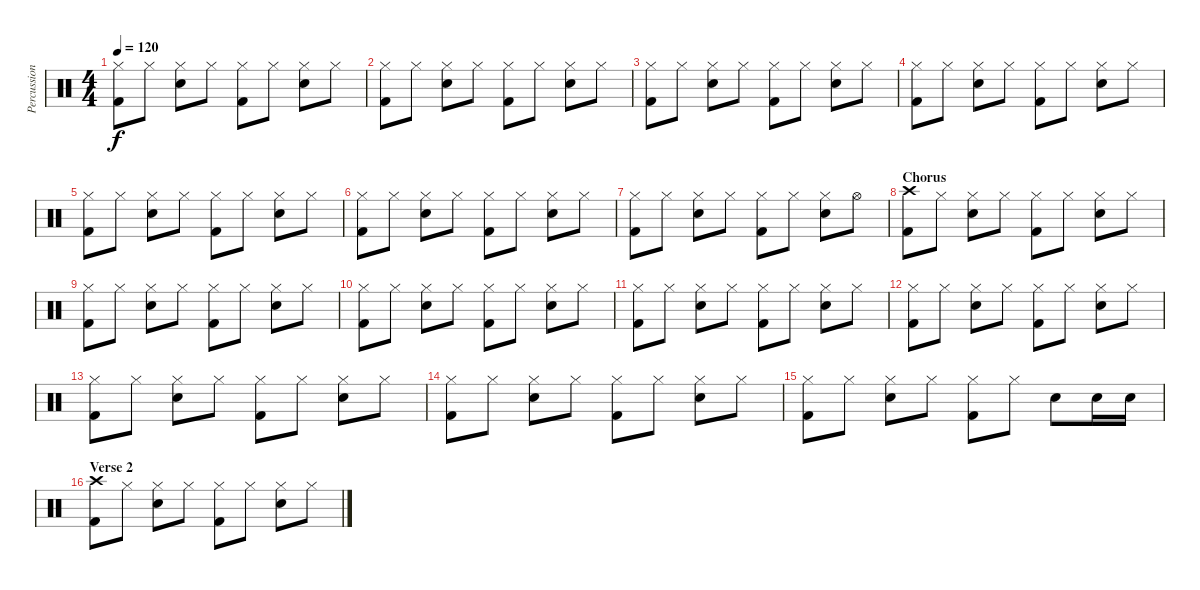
\track ("Percussion" "Percussion") {instrument percussion}
\staff {score}
\articulation defaults
\ts (4 4)
\tempo 120
\clef neutral
\ks c
("Hi-Hat (closed)" "Kick (hit) 2").8{dy f} "Hi-Hat (closed)".8 ("Hi-Hat (closed)" "Electric Snare (hit)").8 "Hi-Hat (closed)".8 ("Hi-Hat (closed)" "Kick (hit) 2").8 "Hi-Hat (closed)".8 ("Hi-Hat (closed)" "Electric Snare (hit)").8 "Hi-Hat (closed)".8 |
("Hi-Hat (closed)" "Kick (hit) 2").8 "Hi-Hat (closed)".8 ("Hi-Hat (closed)" "Electric Snare (hit)").8 "Hi-Hat (closed)".8 ("Hi-Hat (closed)" "Kick (hit) 2").8 "Hi-Hat (closed)".8 ("Hi-Hat (closed)" "Electric Snare (hit)").8 "Hi-Hat (closed)".8 |
("Hi-Hat (closed)" "Kick (hit) 2").8 "Hi-Hat (closed)".8 ("Hi-Hat (closed)" "Electric Snare (hit)").8 "Hi-Hat (closed)".8 ("Hi-Hat (closed)" "Kick (hit) 2").8 "Hi-Hat (closed)".8 ("Hi-Hat (closed)" "Electric Snare (hit)").8 "Hi-Hat (closed)".8 |
("Hi-Hat (closed)" "Kick (hit) 2").8 "Hi-Hat (closed)".8 ("Hi-Hat (closed)" "Electric Snare (hit)").8 "Hi-Hat (closed)".8 ("Hi-Hat (closed)" "Kick (hit) 2").8 "Hi-Hat (closed)".8 ("Hi-Hat (closed)" "Electric Snare (hit)").8 "Hi-Hat (closed)".8 |
("Hi-Hat (closed)" "Kick (hit) 2").8 "Hi-Hat (closed)".8 ("Hi-Hat (closed)" "Electric Snare (hit)").8 "Hi-Hat (closed)".8 ("Hi-Hat (closed)" "Kick (hit) 2").8 "Hi-Hat (closed)".8 ("Hi-Hat (closed)" "Electric Snare (hit)").8 "Hi-Hat (closed)".8 |
("Hi-Hat (closed)" "Kick (hit) 2").8 "Hi-Hat (closed)".8 ("Hi-Hat (closed)" "Electric Snare (hit)").8 "Hi-Hat (closed)".8 ("Hi-Hat (closed)" "Kick (hit) 2").8 "Hi-Hat (closed)".8 ("Hi-Hat (closed)" "Electric Snare (hit)").8 "Hi-Hat (closed)".8 |
("Hi-Hat (closed)" "Kick (hit) 2").8 "Hi-Hat (closed)".8 ("Hi-Hat (closed)" "Electric Snare (hit)").8 "Hi-Hat (closed)".8 ("Hi-Hat (closed)" "Kick (hit) 2").8 "Hi-Hat (closed)".8 ("Hi-Hat (closed)" "Electric Snare (hit)").8 "Hi-Hat (open)".8 |
\section ("" "Chorus")
("Crash high (hit)" "Kick (hit) 2").8 "Hi-Hat (closed)".8 ("Hi-Hat (closed)" "Electric Snare (hit)").8 "Hi-Hat (closed)".8 ("Hi-Hat (closed)" "Kick (hit) 2").8 "Hi-Hat (closed)".8 ("Hi-Hat (closed)" "Electric Snare (hit)").8 "Hi-Hat (closed)".8 |
("Hi-Hat (closed)" "Kick (hit) 2").8 "Hi-Hat (closed)".8 ("Hi-Hat (closed)" "Electric Snare (hit)").8 "Hi-Hat (closed)".8 ("Hi-Hat (closed)" "Kick (hit) 2").8 "Hi-Hat (closed)".8 ("Hi-Hat (closed)" "Electric Snare (hit)").8 "Hi-Hat (closed)".8 |
("Hi-Hat (closed)" "Kick (hit) 2").8 "Hi-Hat (closed)".8 ("Hi-Hat (closed)" "Electric Snare (hit)").8 "Hi-Hat (closed)".8 ("Hi-Hat (closed)" "Kick (hit) 2").8 "Hi-Hat (closed)".8 ("Hi-Hat (closed)" "Electric Snare (hit)").8 "Hi-Hat (closed)".8 |
("Hi-Hat (closed)" "Kick (hit) 2").8 "Hi-Hat (closed)".8 ("Hi-Hat (closed)" "Electric Snare (hit)").8 "Hi-Hat (closed)".8 ("Hi-Hat (closed)" "Kick (hit) 2").8 "Hi-Hat (closed)".8 ("Hi-Hat (closed)" "Electric Snare (hit)").8 "Hi-Hat (closed)".8 |
("Hi-Hat (closed)" "Kick (hit) 2").8 "Hi-Hat (closed)".8 ("Hi-Hat (closed)" "Electric Snare (hit)").8 "Hi-Hat (closed)".8 ("Hi-Hat (closed)" "Kick (hit) 2").8 "Hi-Hat (closed)".8 ("Hi-Hat (closed)" "Electric Snare (hit)").8 "Hi-Hat (closed)".8 |
("Hi-Hat (closed)" "Kick (hit) 2").8 "Hi-Hat (closed)".8 ("Hi-Hat (closed)" "Electric Snare (hit)").8 "Hi-Hat (closed)".8 ("Hi-Hat (closed)" "Kick (hit) 2").8 "Hi-Hat (closed)".8 ("Hi-Hat (closed)" "Electric Snare (hit)").8 "Hi-Hat (closed)".8 |
("Hi-Hat (closed)" "Kick (hit) 2").8 "Hi-Hat (closed)".8 ("Hi-Hat (closed)" "Electric Snare (hit)").8 "Hi-Hat (closed)".8 ("Hi-Hat (closed)" "Kick (hit) 2").8 "Hi-Hat (closed)".8 ("Hi-Hat (closed)" "Electric Snare (hit)").8 "Hi-Hat (closed)".8 |
("Hi-Hat (closed)" "Kick (hit) 2").8 "Hi-Hat (closed)".8 ("Hi-Hat (closed)" "Electric Snare (hit)").8 "Hi-Hat (closed)".8 ("Hi-Hat (closed)" "Kick (hit) 2").8 "Hi-Hat (closed)".8 "Electric Snare (hit)".8 "Electric Snare (hit)".16 "Electric Snare (hit)".16 |
\section ("" "Verse 2")
("Crash high (hit)" "Kick (hit) 2").8 "Hi-Hat (closed)".8 ("Hi-Hat (closed)" "Electric Snare (hit)").8 "Hi-Hat (closed)".8 ("Hi-Hat (closed)" "Kick (hit) 2").8 "Hi-Hat (closed)".8 ("Hi-Hat (closed)" "Electric Snare (hit)").8 "Hi-Hat (closed)".8
